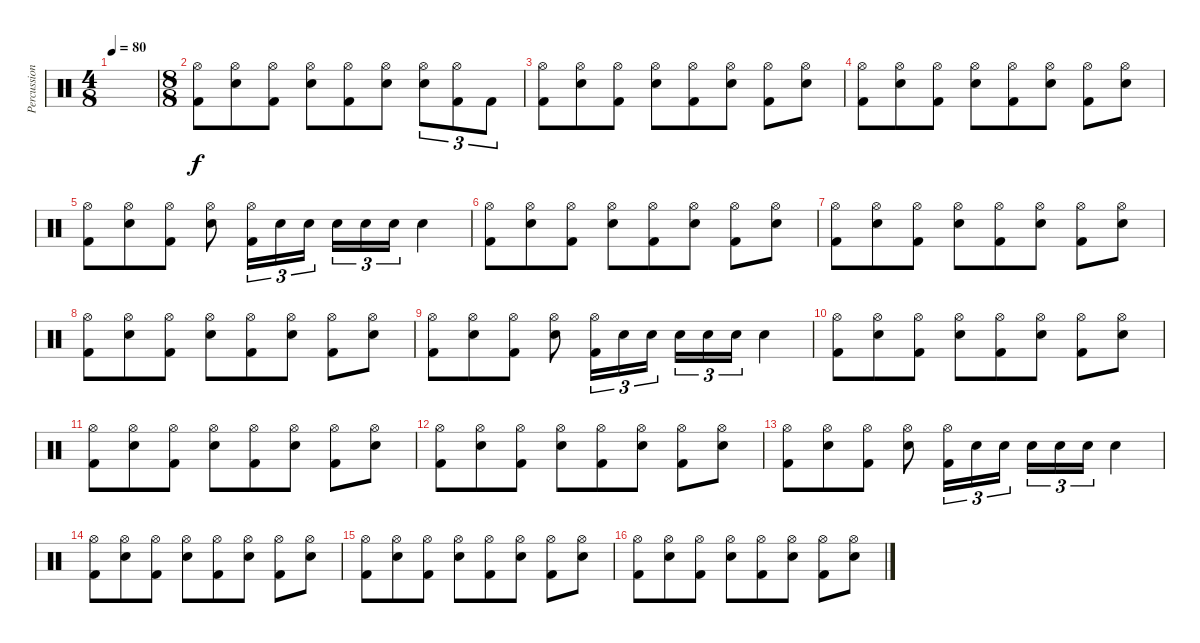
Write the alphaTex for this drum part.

\track ("Percussion" "Percussion") {instrument percussion}
\staff {score}
\articulation defaults
\ts (4 8)
\tempo 80
\clef neutral
\ks c
|
\ts (8 8)
("Hi-Hat (open)" "Kick (hit) 2").8 ("Hi-Hat (open)" "Electric Snare (hit)").8 ("Hi-Hat (open)" "Kick (hit) 2").8 ("Hi-Hat (open)" "Electric Snare (hit)").8 ("Hi-Hat (open)" "Kick (hit) 2").8 ("Hi-Hat (open)" "Electric Snare (hit)").8 ("Hi-Hat (open)" "Electric Snare (hit)").8{tu (3 2)} ("Hi-Hat (open)" "Kick (hit) 2").8{tu (3 2)} "Kick (hit) 2".8{tu (3 2)} |
("Hi-Hat (open)" "Kick (hit) 2").8 ("Hi-Hat (open)" "Electric Snare (hit)").8 ("Hi-Hat (open)" "Kick (hit) 2").8 ("Hi-Hat (open)" "Electric Snare (hit)").8 ("Hi-Hat (open)" "Kick (hit) 2").8 ("Hi-Hat (open)" "Electric Snare (hit)").8 ("Hi-Hat (open)" "Kick (hit) 2").8 ("Hi-Hat (open)" "Electric Snare (hit)").8 |
("Hi-Hat (open)" "Kick (hit) 2").8 ("Hi-Hat (open)" "Electric Snare (hit)").8 ("Hi-Hat (open)" "Kick (hit) 2").8 ("Hi-Hat (open)" "Electric Snare (hit)").8 ("Hi-Hat (open)" "Kick (hit) 2").8 ("Hi-Hat (open)" "Electric Snare (hit)").8 ("Hi-Hat (open)" "Kick (hit) 2").8 ("Hi-Hat (open)" "Electric Snare (hit)").8 |
("Hi-Hat (open)" "Kick (hit) 2").8 ("Hi-Hat (open)" "Electric Snare (hit)").8 ("Hi-Hat (open)" "Kick (hit) 2").8 ("Hi-Hat (open)" "Electric Snare (hit)").8 ("Hi-Hat (open)" "Kick (hit) 2").16{tu (3 2)} "Electric Snare (hit)".16{tu (3 2)} "Electric Snare (hit)".16{tu (3 2)} "Electric Snare (hit)".16{tu (3 2)} "Electric Snare (hit)".16{tu (3 2)} "Electric Snare (hit)".16{tu (3 2)} "Electric Snare (hit)".4 |
("Hi-Hat (open)" "Kick (hit) 2").8 ("Hi-Hat (open)" "Electric Snare (hit)").8 ("Hi-Hat (open)" "Kick (hit) 2").8 ("Hi-Hat (open)" "Electric Snare (hit)").8 ("Hi-Hat (open)" "Kick (hit) 2").8 ("Hi-Hat (open)" "Electric Snare (hit)").8 ("Hi-Hat (open)" "Kick (hit) 2").8 ("Hi-Hat (open)" "Electric Snare (hit)").8 |
("Hi-Hat (open)" "Kick (hit) 2").8 ("Hi-Hat (open)" "Electric Snare (hit)").8 ("Hi-Hat (open)" "Kick (hit) 2").8 ("Hi-Hat (open)" "Electric Snare (hit)").8 ("Hi-Hat (open)" "Kick (hit) 2").8 ("Hi-Hat (open)" "Electric Snare (hit)").8 ("Hi-Hat (open)" "Kick (hit) 2").8 ("Hi-Hat (open)" "Electric Snare (hit)").8 |
("Hi-Hat (open)" "Kick (hit) 2").8 ("Hi-Hat (open)" "Electric Snare (hit)").8 ("Hi-Hat (open)" "Kick (hit) 2").8 ("Hi-Hat (open)" "Electric Snare (hit)").8 ("Hi-Hat (open)" "Kick (hit) 2").8 ("Hi-Hat (open)" "Electric Snare (hit)").8 ("Hi-Hat (open)" "Kick (hit) 2").8 ("Hi-Hat (open)" "Electric Snare (hit)").8 |
("Hi-Hat (open)" "Kick (hit) 2").8 ("Hi-Hat (open)" "Electric Snare (hit)").8 ("Hi-Hat (open)" "Kick (hit) 2").8 ("Hi-Hat (open)" "Electric Snare (hit)").8 ("Hi-Hat (open)" "Kick (hit) 2").16{tu (3 2)} "Electric Snare (hit)".16{tu (3 2)} "Electric Snare (hit)".16{tu (3 2)} "Electric Snare (hit)".16{tu (3 2)} "Electric Snare (hit)".16{tu (3 2)} "Electric Snare (hit)".16{tu (3 2)} "Electric Snare (hit)".4 |
("Hi-Hat (open)" "Kick (hit) 2").8 ("Hi-Hat (open)" "Electric Snare (hit)").8 ("Hi-Hat (open)" "Kick (hit) 2").8 ("Hi-Hat (open)" "Electric Snare (hit)").8 ("Hi-Hat (open)" "Kick (hit) 2").8 ("Hi-Hat (open)" "Electric Snare (hit)").8 ("Hi-Hat (open)" "Kick (hit) 2").8 ("Hi-Hat (open)" "Electric Snare (hit)").8 |
("Hi-Hat (open)" "Kick (hit) 2").8 ("Hi-Hat (open)" "Electric Snare (hit)").8 ("Hi-Hat (open)" "Kick (hit) 2").8 ("Hi-Hat (open)" "Electric Snare (hit)").8 ("Hi-Hat (open)" "Kick (hit) 2").8 ("Hi-Hat (open)" "Electric Snare (hit)").8 ("Hi-Hat (open)" "Kick (hit) 2").8 ("Hi-Hat (open)" "Electric Snare (hit)").8 |
("Hi-Hat (open)" "Kick (hit) 2").8 ("Hi-Hat (open)" "Electric Snare (hit)").8 ("Hi-Hat (open)" "Kick (hit) 2").8 ("Hi-Hat (open)" "Electric Snare (hit)").8 ("Hi-Hat (open)" "Kick (hit) 2").8 ("Hi-Hat (open)" "Electric Snare (hit)").8 ("Hi-Hat (open)" "Kick (hit) 2").8 ("Hi-Hat (open)" "Electric Snare (hit)").8 |
("Hi-Hat (open)" "Kick (hit) 2").8 ("Hi-Hat (open)" "Electric Snare (hit)").8 ("Hi-Hat (open)" "Kick (hit) 2").8 ("Hi-Hat (open)" "Electric Snare (hit)").8 ("Hi-Hat (open)" "Kick (hit) 2").16{tu (3 2)} "Electric Snare (hit)".16{tu (3 2)} "Electric Snare (hit)".16{tu (3 2)} "Electric Snare (hit)".16{tu (3 2)} "Electric Snare (hit)".16{tu (3 2)} "Electric Snare (hit)".16{tu (3 2)} "Electric Snare (hit)".4 |
("Hi-Hat (open)" "Kick (hit) 2").8 ("Hi-Hat (open)" "Electric Snare (hit)").8 ("Hi-Hat (open)" "Kick (hit) 2").8 ("Hi-Hat (open)" "Electric Snare (hit)").8 ("Hi-Hat (open)" "Kick (hit) 2").8 ("Hi-Hat (open)" "Electric Snare (hit)").8 ("Hi-Hat (open)" "Kick (hit) 2").8 ("Hi-Hat (open)" "Electric Snare (hit)").8 |
("Hi-Hat (open)" "Kick (hit) 2").8 ("Hi-Hat (open)" "Electric Snare (hit)").8 ("Hi-Hat (open)" "Kick (hit) 2").8 ("Hi-Hat (open)" "Electric Snare (hit)").8 ("Hi-Hat (open)" "Kick (hit) 2").8 ("Hi-Hat (open)" "Electric Snare (hit)").8 ("Hi-Hat (open)" "Kick (hit) 2").8 ("Hi-Hat (open)" "Electric Snare (hit)").8 |
("Hi-Hat (open)" "Kick (hit) 2").8 ("Hi-Hat (open)" "Electric Snare (hit)").8 ("Hi-Hat (open)" "Kick (hit) 2").8 ("Hi-Hat (open)" "Electric Snare (hit)").8 ("Hi-Hat (open)" "Kick (hit) 2").8 ("Hi-Hat (open)" "Electric Snare (hit)").8 ("Hi-Hat (open)" "Kick (hit) 2").8 ("Hi-Hat (open)" "Electric Snare (hit)").8
